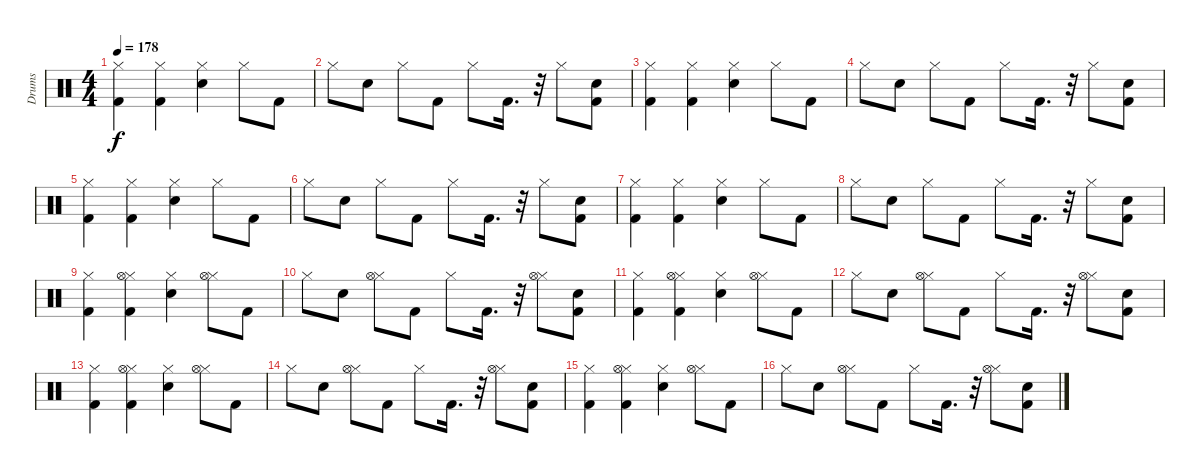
\track ("Drums" "Drums") {instrument percussion}
\staff {score}
\articulation defaults
\ts (4 4)
\tempo 178
\clef neutral
\ks c
("Hi-Hat (closed)" "Kick (hit) 2").4{dy f} ("Hi-Hat (closed)" "Kick (hit) 2").4 ("Snare (hit) 2" "Hi-Hat (closed)").4 "Hi-Hat (closed)".8 "Kick (hit) 2".8 |
"Hi-Hat (closed)".8 "Snare (hit) 2".8 "Hi-Hat (closed)".8 "Kick (hit) 2".8 "Hi-Hat (closed)".8 "Kick (hit) 2".16{d} r.32 "Hi-Hat (closed)".8 ("Kick (hit) 2" "Snare (hit) 2").8 |
("Hi-Hat (closed)" "Kick (hit) 2").4 ("Hi-Hat (closed)" "Kick (hit) 2").4 ("Snare (hit) 2" "Hi-Hat (closed)").4 "Hi-Hat (closed)".8 "Kick (hit) 2".8 |
"Hi-Hat (closed)".8 "Snare (hit) 2".8 "Hi-Hat (closed)".8 "Kick (hit) 2".8 "Hi-Hat (closed)".8 "Kick (hit) 2".16{d} r.32 "Hi-Hat (closed)".8 ("Kick (hit) 2" "Snare (hit) 2").8 |
("Hi-Hat (closed)" "Kick (hit) 2").4 ("Hi-Hat (closed)" "Kick (hit) 2").4 ("Snare (hit) 2" "Hi-Hat (closed)").4 "Hi-Hat (closed)".8 "Kick (hit) 2".8 |
"Hi-Hat (closed)".8 "Snare (hit) 2".8 "Hi-Hat (closed)".8 "Kick (hit) 2".8 "Hi-Hat (closed)".8 "Kick (hit) 2".16{d} r.32 "Hi-Hat (closed)".8 ("Kick (hit) 2" "Snare (hit) 2").8 |
("Hi-Hat (closed)" "Kick (hit) 2").4 ("Hi-Hat (closed)" "Kick (hit) 2").4 ("Snare (hit) 2" "Hi-Hat (closed)").4 "Hi-Hat (closed)".8 "Kick (hit) 2".8 |
"Hi-Hat (closed)".8 "Snare (hit) 2".8 "Hi-Hat (closed)".8 "Kick (hit) 2".8 "Hi-Hat (closed)".8 "Kick (hit) 2".16{d} r.32 "Hi-Hat (closed)".8 ("Kick (hit) 2" "Snare (hit) 2").8 |
("Hi-Hat (closed)" "Kick (hit) 2").4 ("Hi-Hat (closed)" "Hi-Hat (open)" "Kick (hit) 2").4 ("Snare (hit) 2" "Hi-Hat (closed)").4 ("Hi-Hat (closed)" "Hi-Hat (open)").8 "Kick (hit) 2".8 |
"Hi-Hat (closed)".8 "Snare (hit) 2".8 ("Hi-Hat (closed)" "Hi-Hat (open)").8 "Kick (hit) 2".8 "Hi-Hat (closed)".8 "Kick (hit) 2".16{d} r.32 ("Hi-Hat (closed)" "Hi-Hat (open)").8 ("Kick (hit) 2" "Snare (hit) 2").8 |
("Hi-Hat (closed)" "Kick (hit) 2").4 ("Hi-Hat (closed)" "Hi-Hat (open)" "Kick (hit) 2").4 ("Snare (hit) 2" "Hi-Hat (closed)").4 ("Hi-Hat (closed)" "Hi-Hat (open)").8 "Kick (hit) 2".8 |
"Hi-Hat (closed)".8 "Snare (hit) 2".8 ("Hi-Hat (closed)" "Hi-Hat (open)").8 "Kick (hit) 2".8 "Hi-Hat (closed)".8 "Kick (hit) 2".16{d} r.32 ("Hi-Hat (closed)" "Hi-Hat (open)").8 ("Kick (hit) 2" "Snare (hit) 2").8 |
("Hi-Hat (closed)" "Kick (hit) 2").4 ("Hi-Hat (closed)" "Hi-Hat (open)" "Kick (hit) 2").4 ("Snare (hit) 2" "Hi-Hat (closed)").4 ("Hi-Hat (closed)" "Hi-Hat (open)").8 "Kick (hit) 2".8 |
"Hi-Hat (closed)".8 "Snare (hit) 2".8 ("Hi-Hat (closed)" "Hi-Hat (open)").8 "Kick (hit) 2".8 "Hi-Hat (closed)".8 "Kick (hit) 2".16{d} r.32 ("Hi-Hat (closed)" "Hi-Hat (open)").8 ("Kick (hit) 2" "Snare (hit) 2").8 |
("Hi-Hat (closed)" "Kick (hit) 2").4 ("Hi-Hat (closed)" "Hi-Hat (open)" "Kick (hit) 2").4 ("Snare (hit) 2" "Hi-Hat (closed)").4 ("Hi-Hat (closed)" "Hi-Hat (open)").8 "Kick (hit) 2".8 |
"Hi-Hat (closed)".8 "Snare (hit) 2".8 ("Hi-Hat (closed)" "Hi-Hat (open)").8 "Kick (hit) 2".8 "Hi-Hat (closed)".8 "Kick (hit) 2".16{d} r.32 ("Hi-Hat (closed)" "Hi-Hat (open)").8 ("Kick (hit) 2" "Snare (hit) 2").8
